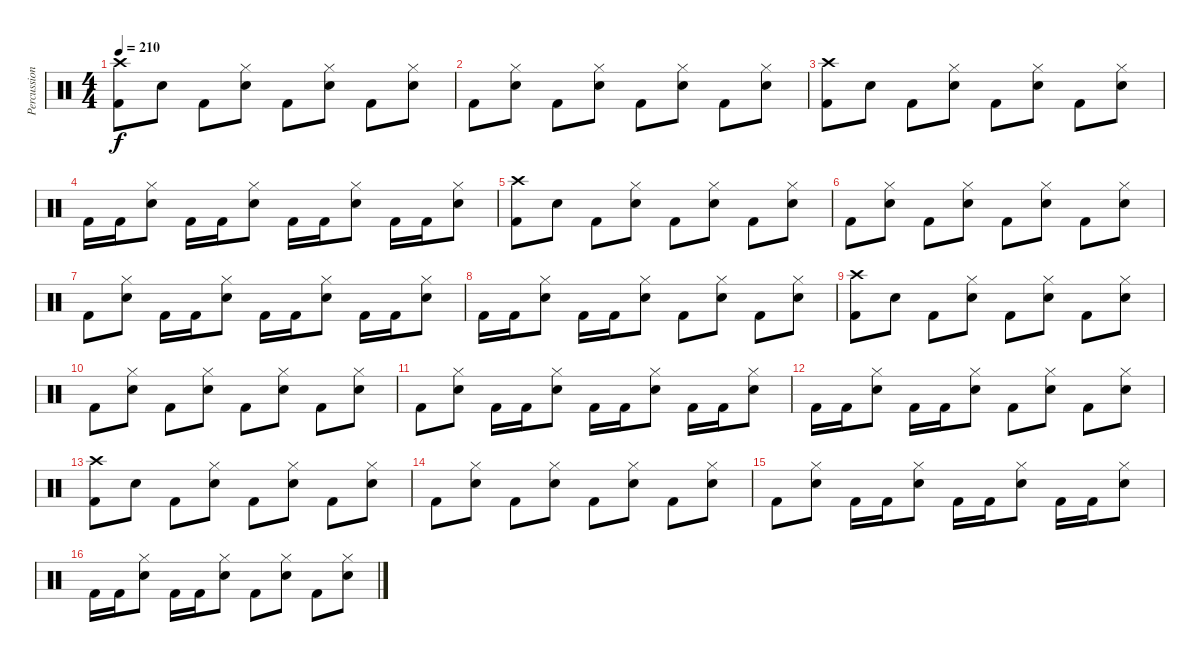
\track ("Percussions" "Percussion") {instrument percussion}
\staff {score}
\articulation defaults
\ts (4 4)
\tempo 210
\clef neutral
\ks c
("Crash high (hit)" "Kick (hit) 2").8{dy f} "Electric Snare (hit)".8 "Kick (hit) 2".8 ("Hi-Hat (closed)" "Electric Snare (hit)").8 "Kick (hit) 2".8 ("Hi-Hat (closed)" "Electric Snare (hit)").8 "Kick (hit) 2".8 ("Hi-Hat (closed)" "Electric Snare (hit)").8 |
"Kick (hit) 2".8 ("Hi-Hat (closed)" "Electric Snare (hit)").8 "Kick (hit) 2".8 ("Hi-Hat (closed)" "Electric Snare (hit)").8 "Kick (hit) 2".8 ("Hi-Hat (closed)" "Electric Snare (hit)").8 "Kick (hit) 2".8 ("Hi-Hat (closed)" "Electric Snare (hit)").8 |
("Crash high (hit)" "Kick (hit) 2").8 "Electric Snare (hit)".8 "Kick (hit) 2".8 ("Hi-Hat (closed)" "Electric Snare (hit)").8 "Kick (hit) 2".8 ("Hi-Hat (closed)" "Electric Snare (hit)").8 "Kick (hit) 2".8 ("Hi-Hat (closed)" "Electric Snare (hit)").8 |
"Kick (hit) 2".16 "Kick (hit) 2".16 ("Hi-Hat (closed)" "Electric Snare (hit)").8 "Kick (hit) 2".16 "Kick (hit) 2".16 ("Hi-Hat (closed)" "Electric Snare (hit)").8 "Kick (hit) 2".16 "Kick (hit) 2".16 ("Hi-Hat (closed)" "Electric Snare (hit)").8 "Kick (hit) 2".16 "Kick (hit) 2".16 ("Hi-Hat (closed)" "Electric Snare (hit)").8 |
("Crash high (hit)" "Kick (hit) 2").8 "Electric Snare (hit)".8 "Kick (hit) 2".8 ("Hi-Hat (closed)" "Electric Snare (hit)").8 "Kick (hit) 2".8 ("Hi-Hat (closed)" "Electric Snare (hit)").8 "Kick (hit) 2".8 ("Hi-Hat (closed)" "Electric Snare (hit)").8 |
"Kick (hit) 2".8 ("Hi-Hat (closed)" "Electric Snare (hit)").8 "Kick (hit) 2".8 ("Hi-Hat (closed)" "Electric Snare (hit)").8 "Kick (hit) 2".8 ("Hi-Hat (closed)" "Electric Snare (hit)").8 "Kick (hit) 2".8 ("Hi-Hat (closed)" "Electric Snare (hit)").8 |
"Kick (hit) 2".8 ("Hi-Hat (closed)" "Electric Snare (hit)").8 "Kick (hit) 2".16 "Kick (hit) 2".16 ("Hi-Hat (closed)" "Electric Snare (hit)").8 "Kick (hit) 2".16 "Kick (hit) 2".16 ("Hi-Hat (closed)" "Electric Snare (hit)").8 "Kick (hit) 2".16 "Kick (hit) 2".16 ("Hi-Hat (closed)" "Electric Snare (hit)").8 |
"Kick (hit) 2".16 "Kick (hit) 2".16 ("Hi-Hat (closed)" "Electric Snare (hit)").8 "Kick (hit) 2".16 "Kick (hit) 2".16 ("Hi-Hat (closed)" "Electric Snare (hit)").8 "Kick (hit) 2".8 ("Hi-Hat (closed)" "Electric Snare (hit)").8 "Kick (hit) 2".8 ("Hi-Hat (closed)" "Electric Snare (hit)").8 |
("Crash high (hit)" "Kick (hit) 2").8 "Electric Snare (hit)".8 "Kick (hit) 2".8 ("Hi-Hat (closed)" "Electric Snare (hit)").8 "Kick (hit) 2".8 ("Hi-Hat (closed)" "Electric Snare (hit)").8 "Kick (hit) 2".8 ("Hi-Hat (closed)" "Electric Snare (hit)").8 |
"Kick (hit) 2".8 ("Hi-Hat (closed)" "Electric Snare (hit)").8 "Kick (hit) 2".8 ("Hi-Hat (closed)" "Electric Snare (hit)").8 "Kick (hit) 2".8 ("Hi-Hat (closed)" "Electric Snare (hit)").8 "Kick (hit) 2".8 ("Hi-Hat (closed)" "Electric Snare (hit)").8 |
"Kick (hit) 2".8 ("Hi-Hat (closed)" "Electric Snare (hit)").8 "Kick (hit) 2".16 "Kick (hit) 2".16 ("Hi-Hat (closed)" "Electric Snare (hit)").8 "Kick (hit) 2".16 "Kick (hit) 2".16 ("Hi-Hat (closed)" "Electric Snare (hit)").8 "Kick (hit) 2".16 "Kick (hit) 2".16 ("Hi-Hat (closed)" "Electric Snare (hit)").8 |
"Kick (hit) 2".16 "Kick (hit) 2".16 ("Hi-Hat (closed)" "Electric Snare (hit)").8 "Kick (hit) 2".16 "Kick (hit) 2".16 ("Hi-Hat (closed)" "Electric Snare (hit)").8 "Kick (hit) 2".8 ("Hi-Hat (closed)" "Electric Snare (hit)").8 "Kick (hit) 2".8 ("Hi-Hat (closed)" "Electric Snare (hit)").8 |
("Crash high (hit)" "Kick (hit) 2").8 "Electric Snare (hit)".8 "Kick (hit) 2".8 ("Hi-Hat (closed)" "Electric Snare (hit)").8 "Kick (hit) 2".8 ("Hi-Hat (closed)" "Electric Snare (hit)").8 "Kick (hit) 2".8 ("Hi-Hat (closed)" "Electric Snare (hit)").8 |
"Kick (hit) 2".8 ("Hi-Hat (closed)" "Electric Snare (hit)").8 "Kick (hit) 2".8 ("Hi-Hat (closed)" "Electric Snare (hit)").8 "Kick (hit) 2".8 ("Hi-Hat (closed)" "Electric Snare (hit)").8 "Kick (hit) 2".8 ("Hi-Hat (closed)" "Electric Snare (hit)").8 |
"Kick (hit) 2".8 ("Hi-Hat (closed)" "Electric Snare (hit)").8 "Kick (hit) 2".16 "Kick (hit) 2".16 ("Hi-Hat (closed)" "Electric Snare (hit)").8 "Kick (hit) 2".16 "Kick (hit) 2".16 ("Hi-Hat (closed)" "Electric Snare (hit)").8 "Kick (hit) 2".16 "Kick (hit) 2".16 ("Hi-Hat (closed)" "Electric Snare (hit)").8 |
"Kick (hit) 2".16 "Kick (hit) 2".16 ("Hi-Hat (closed)" "Electric Snare (hit)").8 "Kick (hit) 2".16 "Kick (hit) 2".16 ("Hi-Hat (closed)" "Electric Snare (hit)").8 "Kick (hit) 2".8 ("Hi-Hat (closed)" "Electric Snare (hit)").8 "Kick (hit) 2".8 ("Hi-Hat (closed)" "Electric Snare (hit)").8
